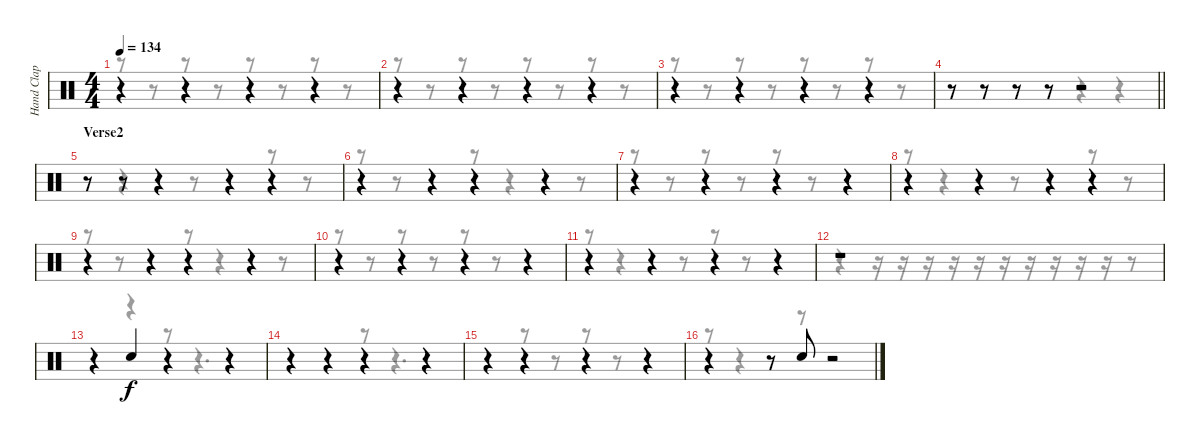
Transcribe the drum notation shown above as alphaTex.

\track ("Hand Clap" "Hand Clap") {instrument percussion}
\staff {score}
\articulation defaults
\voice
\ts (4 4)
\tempo 134
\clef neutral
\ks c
r.4{dy f} r.4 r.4 r.4 |
r.4 r.4 r.4 r.4 |
r.4 r.4 r.4 r.4 |
\barLineRight lightlight
r.8 r.8 r.8 r.8 r.2 |
\section ("" "Verse2")
r.8 r.8 r.4 r.4 r.4 |
r.4 r.4 r.4 r.4 |
r.4 r.4 r.4 r.4 |
r.4 r.4 r.4 r.4 |
r.4 r.4 r.4 r.4 |
r.4 r.4 r.4 r.4 |
r.4 r.4 r.4 r.4 |
r.1 |
r.4 "Hand Clap (hit)".4 r.4 r.4 |
r.4 r.4 r.4 r.4 |
r.4 r.4 r.4 r.4 |
r.4 r.8 "Hand Clap (hit)".8 r.2
\voice
\clef neutral
\ottava regular
\simile none
\ks c
r.8{dy f} r.8 r.8 r.8 r.8 r.8 r.8 r.8 |
r.8 r.8 r.8 r.8 r.8 r.8 r.8 r.8 |
r.8 r.8 r.8 r.8 r.8 r.8 r.8 r.8 |
\barLineRight lightlight
r.8 r.8 r.8 r.8 r.4 r.4 |
r.8 r.4 r.8 r.4 r.8 r.8 |
r.8 r.8 r.4 r.8 r.4 r.8 |
r.8 r.8 r.8 r.8 r.8 r.8 r.4 |
r.8 r.4 r.8 r.4 r.8 r.8 |
r.8 r.8 r.4 r.8 r.4 r.8 |
r.8 r.8 r.8 r.8 r.8 r.8 r.4 |
r.8 r.4 r.8 r.8 r.8 r.4 |
r.4 r.16 r.16 r.16 r.16 r.16 r.16 r.16 r.16 r.16 r.16 r.8 |
r.4 r.4 r.8 r.4{d} |
r.4 r.4 r.8 r.4{d} |
r.4 r.8 r.8 r.8 r.8 r.4 |
r.8 r.4 r.8 r.2
